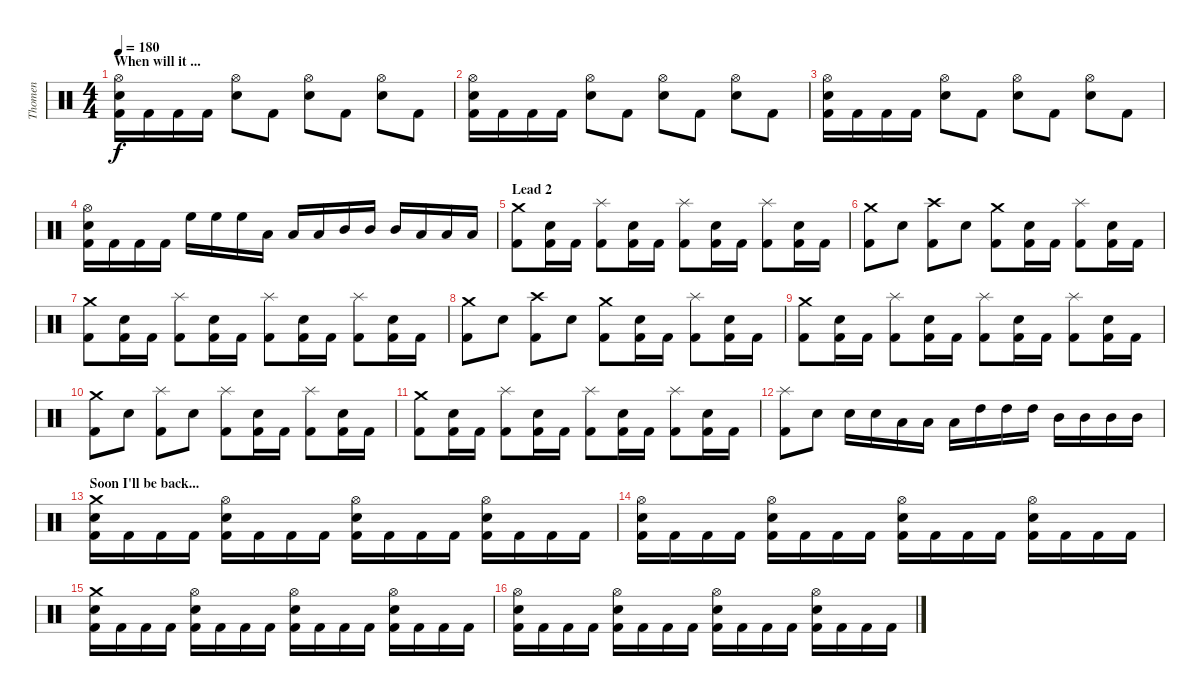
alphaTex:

\track ("Thomen" "Thomen") {instrument percussion}
\staff {score}
\articulation defaults
\ts (4 4)
\section ("" "When will it ...")
\tempo 180
\clef neutral
\ks c
("Kick (hit) 2" "Electric Snare (hit)" "Hi-Hat (open)").16{dy f} "Kick (hit) 2".16 "Kick (hit) 2".16 "Kick (hit) 2".16 ("Electric Snare (hit)" "Hi-Hat (open)").8 "Kick (hit) 2".8 ("Electric Snare (hit)" "Hi-Hat (open)").8 "Kick (hit) 2".8 ("Electric Snare (hit)" "Hi-Hat (open)").8 "Kick (hit) 2".8 |
("Kick (hit) 2" "Electric Snare (hit)" "Hi-Hat (open)").16 "Kick (hit) 2".16 "Kick (hit) 2".16 "Kick (hit) 2".16 ("Electric Snare (hit)" "Hi-Hat (open)").8 "Kick (hit) 2".8 ("Electric Snare (hit)" "Hi-Hat (open)").8 "Kick (hit) 2".8 ("Electric Snare (hit)" "Hi-Hat (open)").8 "Kick (hit) 2".8 |
("Kick (hit) 2" "Electric Snare (hit)" "Hi-Hat (open)").16 "Kick (hit) 2".16 "Kick (hit) 2".16 "Kick (hit) 2".16 ("Electric Snare (hit)" "Hi-Hat (open)").8 "Kick (hit) 2".8 ("Electric Snare (hit)" "Hi-Hat (open)").8 "Kick (hit) 2".8 ("Electric Snare (hit)" "Hi-Hat (open)").8 "Kick (hit) 2".8 |
("Kick (hit) 2" "Electric Snare (hit)" "Hi-Hat (open)").16 "Kick (hit) 2".16 "Kick (hit) 2".16 "Kick (hit) 2".16 "High Floor Tom (hit)".16 "High Floor Tom (hit)".16 "High Floor Tom (hit)".16 "Low Tom (hit)".16 "Low Tom (hit)".16 "Low Tom (hit)".16 "Mid Tom (hit)".16 "Mid Tom (hit)".16 "Mid Tom (hit)".16 "Low Tom (hit)".16 "Low Tom (hit)".16 "Low Tom (hit)".16 |
\section ("" "Lead 2")
("Kick (hit) 2" "Crash medium (hit)").8 ("Kick (hit) 2" "Electric Snare (hit)").16 "Kick (hit) 2".16 ("Kick (hit) 2" "Splash (hit)").8 ("Kick (hit) 2" "Electric Snare (hit)").16 "Kick (hit) 2".16 ("Kick (hit) 2" "Splash (hit)").8 ("Kick (hit) 2" "Electric Snare (hit)").16 "Kick (hit) 2".16 ("Kick (hit) 2" "Splash (hit)").8 ("Kick (hit) 2" "Electric Snare (hit)").16 "Kick (hit) 2".16 |
("Kick (hit) 2" "Crash medium (hit)").8 "Electric Snare (hit)".8 ("Kick (hit) 2" "Crash high (hit)").8 "Electric Snare (hit)".8 ("Kick (hit) 2" "Crash medium (hit)").8 ("Kick (hit) 2" "Electric Snare (hit)").16 "Kick (hit) 2".16 ("Kick (hit) 2" "Splash (hit)").8 ("Kick (hit) 2" "Electric Snare (hit)").16 "Kick (hit) 2".16 |
("Kick (hit) 2" "Crash medium (hit)").8 ("Kick (hit) 2" "Electric Snare (hit)").16 "Kick (hit) 2".16 ("Kick (hit) 2" "Splash (hit)").8 ("Kick (hit) 2" "Electric Snare (hit)").16 "Kick (hit) 2".16 ("Kick (hit) 2" "Splash (hit)").8 ("Kick (hit) 2" "Electric Snare (hit)").16 "Kick (hit) 2".16 ("Kick (hit) 2" "Splash (hit)").8 ("Kick (hit) 2" "Electric Snare (hit)").16 "Kick (hit) 2".16 |
("Kick (hit) 2" "Crash medium (hit)").8 "Electric Snare (hit)".8 ("Kick (hit) 2" "Crash high (hit)").8 "Electric Snare (hit)".8 ("Kick (hit) 2" "Crash medium (hit)").8 ("Kick (hit) 2" "Electric Snare (hit)").16 "Kick (hit) 2".16 ("Kick (hit) 2" "Splash (hit)").8 ("Kick (hit) 2" "Electric Snare (hit)").16 "Kick (hit) 2".16 |
("Kick (hit) 2" "Crash medium (hit)").8 ("Kick (hit) 2" "Electric Snare (hit)").16 "Kick (hit) 2".16 ("Kick (hit) 2" "Splash (hit)").8 ("Kick (hit) 2" "Electric Snare (hit)").16 "Kick (hit) 2".16 ("Kick (hit) 2" "Splash (hit)").8 ("Kick (hit) 2" "Electric Snare (hit)").16 "Kick (hit) 2".16 ("Kick (hit) 2" "Splash (hit)").8 ("Kick (hit) 2" "Electric Snare (hit)").16 "Kick (hit) 2".16 |
("Kick (hit) 2" "Crash medium (hit)").8 "Electric Snare (hit)".8 ("Kick (hit) 2" "Splash (hit)").8 "Electric Snare (hit)".8 ("Kick (hit) 2" "Splash (hit)").8 ("Kick (hit) 2" "Electric Snare (hit)").16 "Kick (hit) 2".16 ("Kick (hit) 2" "Splash (hit)").8 ("Kick (hit) 2" "Electric Snare (hit)").16 "Kick (hit) 2".16 |
("Kick (hit) 2" "Crash medium (hit)").8 ("Kick (hit) 2" "Electric Snare (hit)").16 "Kick (hit) 2".16 ("Kick (hit) 2" "Splash (hit)").8 ("Kick (hit) 2" "Electric Snare (hit)").16 "Kick (hit) 2".16 ("Kick (hit) 2" "Splash (hit)").8 ("Kick (hit) 2" "Electric Snare (hit)").16 "Kick (hit) 2".16 ("Kick (hit) 2" "Splash (hit)").8 ("Kick (hit) 2" "Electric Snare (hit)").16 "Kick (hit) 2".16 |
("Kick (hit) 2" "Splash (hit)").8 "Electric Snare (hit)".8 "Electric Snare (hit)".16 "Electric Snare (hit)".16 "Low Tom (hit)".16 "Low Tom (hit)".16 "Low Tom (hit)".16 "High Tom (hit)".16 "High Tom (hit)".16 "High Tom (hit)".16 "Mid Tom (hit)".16 "Mid Tom (hit)".16 "Mid Tom (hit)".16 "Mid Tom (hit)".16 |
\section ("" "Soon I'll be back...")
("Kick (hit) 2" "Electric Snare (hit)" "Crash medium (hit)").16 "Kick (hit) 2".16 "Kick (hit) 2".16 "Kick (hit) 2".16 ("Kick (hit) 2" "Electric Snare (hit)" "Hi-Hat (open)").16 "Kick (hit) 2".16 "Kick (hit) 2".16 "Kick (hit) 2".16 ("Kick (hit) 2" "Electric Snare (hit)" "Hi-Hat (open)").16 "Kick (hit) 2".16 "Kick (hit) 2".16 "Kick (hit) 2".16 ("Kick (hit) 2" "Electric Snare (hit)" "Hi-Hat (open)").16 "Kick (hit) 2".16 "Kick (hit) 2".16 "Kick (hit) 2".16 |
("Kick (hit) 2" "Electric Snare (hit)" "Hi-Hat (open)").16 "Kick (hit) 2".16 "Kick (hit) 2".16 "Kick (hit) 2".16 ("Kick (hit) 2" "Electric Snare (hit)" "Hi-Hat (open)").16 "Kick (hit) 2".16 "Kick (hit) 2".16 "Kick (hit) 2".16 ("Kick (hit) 2" "Electric Snare (hit)" "Hi-Hat (open)").16 "Kick (hit) 2".16 "Kick (hit) 2".16 "Kick (hit) 2".16 ("Kick (hit) 2" "Electric Snare (hit)" "Hi-Hat (open)").16 "Kick (hit) 2".16 "Kick (hit) 2".16 "Kick (hit) 2".16 |
("Kick (hit) 2" "Electric Snare (hit)" "Crash medium (hit)").16 "Kick (hit) 2".16 "Kick (hit) 2".16 "Kick (hit) 2".16 ("Kick (hit) 2" "Electric Snare (hit)" "Hi-Hat (open)").16 "Kick (hit) 2".16 "Kick (hit) 2".16 "Kick (hit) 2".16 ("Kick (hit) 2" "Electric Snare (hit)" "Hi-Hat (open)").16 "Kick (hit) 2".16 "Kick (hit) 2".16 "Kick (hit) 2".16 ("Kick (hit) 2" "Electric Snare (hit)" "Hi-Hat (open)").16 "Kick (hit) 2".16 "Kick (hit) 2".16 "Kick (hit) 2".16 |
("Kick (hit) 2" "Electric Snare (hit)" "Hi-Hat (open)").16 "Kick (hit) 2".16 "Kick (hit) 2".16 "Kick (hit) 2".16 ("Kick (hit) 2" "Electric Snare (hit)" "Hi-Hat (open)").16 "Kick (hit) 2".16 "Kick (hit) 2".16 "Kick (hit) 2".16 ("Kick (hit) 2" "Electric Snare (hit)" "Hi-Hat (open)").16 "Kick (hit) 2".16 "Kick (hit) 2".16 "Kick (hit) 2".16 ("Kick (hit) 2" "Electric Snare (hit)" "Hi-Hat (open)").16 "Kick (hit) 2".16 "Kick (hit) 2".16 "Kick (hit) 2".16
